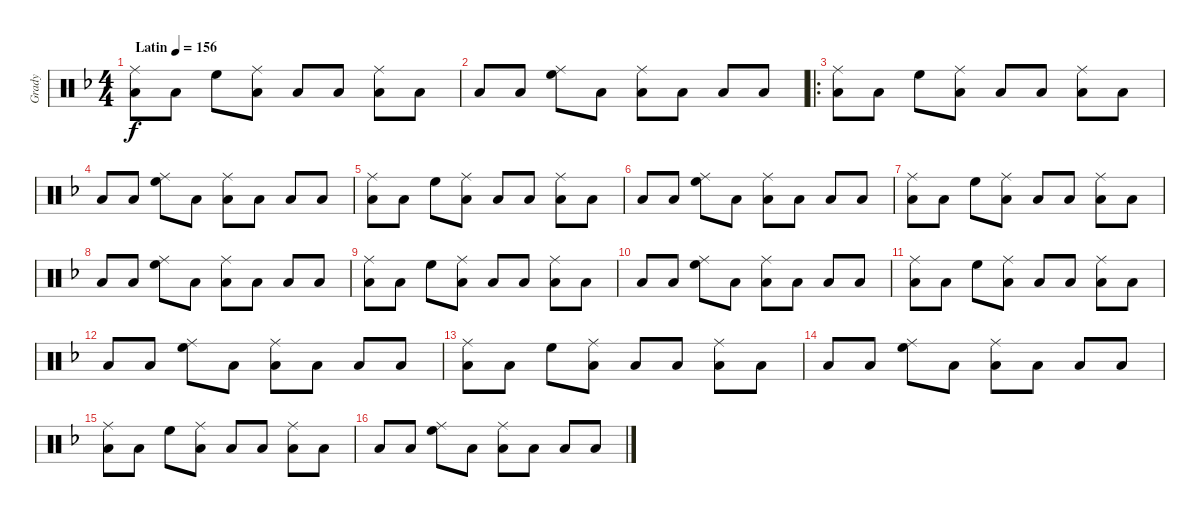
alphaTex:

\track ("Grady" "Grady") {instrument percussion}
\staff {score}
\articulation defaults
\ts (4 4)
\tempo (156 "Latin")
\clef neutral
\ks f
("Ride (middle)" "Low Tom (hit)").8{dy f} "Low Tom (hit)".8 "High Floor Tom (hit)".8 ("Ride (middle)" "Low Tom (hit)").8 "Low Tom (hit)".8 "Low Tom (hit)".8 ("Ride (middle)" "Low Tom (hit)").8 "Low Tom (hit)".8 |
"Low Tom (hit)".8 "Low Tom (hit)".8 ("High Floor Tom (hit)" "Ride (middle)").8 "Low Tom (hit)".8 ("Ride (middle)" "Low Tom (hit)").8 "Low Tom (hit)".8 "Low Tom (hit)".8 "Low Tom (hit)".8 |
\ro
("Ride (middle)" "Low Tom (hit)").8 "Low Tom (hit)".8 "High Floor Tom (hit)".8 ("Ride (middle)" "Low Tom (hit)").8 "Low Tom (hit)".8 "Low Tom (hit)".8 ("Ride (middle)" "Low Tom (hit)").8 "Low Tom (hit)".8 |
"Low Tom (hit)".8 "Low Tom (hit)".8 ("High Floor Tom (hit)" "Ride (middle)").8 "Low Tom (hit)".8 ("Ride (middle)" "Low Tom (hit)").8 "Low Tom (hit)".8 "Low Tom (hit)".8 "Low Tom (hit)".8 |
("Ride (middle)" "Low Tom (hit)").8 "Low Tom (hit)".8 "High Floor Tom (hit)".8 ("Ride (middle)" "Low Tom (hit)").8 "Low Tom (hit)".8 "Low Tom (hit)".8 ("Ride (middle)" "Low Tom (hit)").8 "Low Tom (hit)".8 |
"Low Tom (hit)".8 "Low Tom (hit)".8 ("High Floor Tom (hit)" "Ride (middle)").8 "Low Tom (hit)".8 ("Ride (middle)" "Low Tom (hit)").8 "Low Tom (hit)".8 "Low Tom (hit)".8 "Low Tom (hit)".8 |
("Ride (middle)" "Low Tom (hit)").8 "Low Tom (hit)".8 "High Floor Tom (hit)".8 ("Ride (middle)" "Low Tom (hit)").8 "Low Tom (hit)".8 "Low Tom (hit)".8 ("Ride (middle)" "Low Tom (hit)").8 "Low Tom (hit)".8 |
"Low Tom (hit)".8 "Low Tom (hit)".8 ("High Floor Tom (hit)" "Ride (middle)").8 "Low Tom (hit)".8 ("Ride (middle)" "Low Tom (hit)").8 "Low Tom (hit)".8 "Low Tom (hit)".8 "Low Tom (hit)".8 |
("Ride (middle)" "Low Tom (hit)").8 "Low Tom (hit)".8 "High Floor Tom (hit)".8 ("Ride (middle)" "Low Tom (hit)").8 "Low Tom (hit)".8 "Low Tom (hit)".8 ("Ride (middle)" "Low Tom (hit)").8 "Low Tom (hit)".8 |
"Low Tom (hit)".8 "Low Tom (hit)".8 ("High Floor Tom (hit)" "Ride (middle)").8 "Low Tom (hit)".8 ("Ride (middle)" "Low Tom (hit)").8 "Low Tom (hit)".8 "Low Tom (hit)".8 "Low Tom (hit)".8 |
("Ride (middle)" "Low Tom (hit)").8 "Low Tom (hit)".8 "High Floor Tom (hit)".8 ("Ride (middle)" "Low Tom (hit)").8 "Low Tom (hit)".8 "Low Tom (hit)".8 ("Ride (middle)" "Low Tom (hit)").8 "Low Tom (hit)".8 |
"Low Tom (hit)".8 "Low Tom (hit)".8 ("High Floor Tom (hit)" "Ride (middle)").8 "Low Tom (hit)".8 ("Ride (middle)" "Low Tom (hit)").8 "Low Tom (hit)".8 "Low Tom (hit)".8 "Low Tom (hit)".8 |
("Ride (middle)" "Low Tom (hit)").8 "Low Tom (hit)".8 "High Floor Tom (hit)".8 ("Ride (middle)" "Low Tom (hit)").8 "Low Tom (hit)".8 "Low Tom (hit)".8 ("Ride (middle)" "Low Tom (hit)").8 "Low Tom (hit)".8 |
"Low Tom (hit)".8 "Low Tom (hit)".8 ("High Floor Tom (hit)" "Ride (middle)").8 "Low Tom (hit)".8 ("Ride (middle)" "Low Tom (hit)").8 "Low Tom (hit)".8 "Low Tom (hit)".8 "Low Tom (hit)".8 |
("Ride (middle)" "Low Tom (hit)").8 "Low Tom (hit)".8 "High Floor Tom (hit)".8 ("Ride (middle)" "Low Tom (hit)").8 "Low Tom (hit)".8 "Low Tom (hit)".8 ("Ride (middle)" "Low Tom (hit)").8 "Low Tom (hit)".8 |
"Low Tom (hit)".8 "Low Tom (hit)".8 ("High Floor Tom (hit)" "Ride (middle)").8 "Low Tom (hit)".8 ("Ride (middle)" "Low Tom (hit)").8 "Low Tom (hit)".8 "Low Tom (hit)".8 "Low Tom (hit)".8
